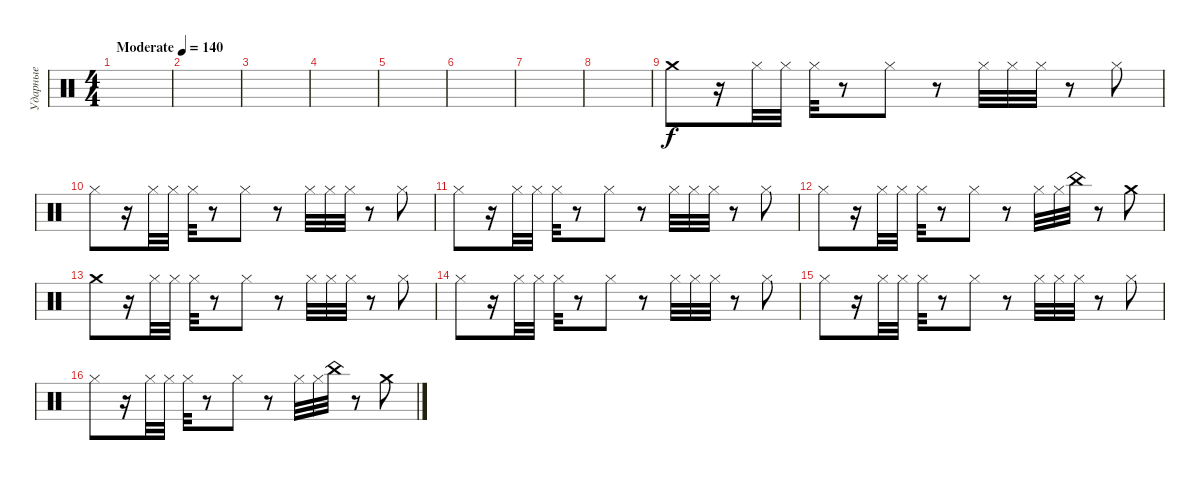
\track ("Ударные" "Ударные") {instrument percussion}
\staff {score}
\articulation defaults
\ts (4 4)
\tempo (140 "Moderate")
\clef neutral
\ks c
|
|
|
|
|
|
|
|
"Crash medium (hit)".8 r.16 "Hi-Hat (closed)".32 "Hi-Hat (closed)".32 "Hi-Hat (closed)".32 r.8 "Hi-Hat (closed)".8 r.8 "Hi-Hat (closed)".32 "Hi-Hat (closed)".32 "Hi-Hat (closed)".32 r.8 "Hi-Hat (closed)".8 |
"Hi-Hat (closed)".8 r.16 "Hi-Hat (closed)".32 "Hi-Hat (closed)".32 "Hi-Hat (closed)".32 r.8 "Hi-Hat (closed)".8 r.8 "Hi-Hat (closed)".32 "Hi-Hat (closed)".32 "Hi-Hat (closed)".32 r.8 "Hi-Hat (closed)".8 |
"Hi-Hat (closed)".8 r.16 "Hi-Hat (closed)".32 "Hi-Hat (closed)".32 "Hi-Hat (closed)".32 r.8 "Hi-Hat (closed)".8 r.8 "Hi-Hat (closed)".32 "Hi-Hat (closed)".32 "Hi-Hat (closed)".32 r.8 "Hi-Hat (closed)".8 |
"Hi-Hat (closed)".8 r.16 "Hi-Hat (closed)".32 "Hi-Hat (closed)".32 "Hi-Hat (closed)".32 r.8 "Hi-Hat (closed)".8 r.8 "Hi-Hat (closed)".32 "Hi-Hat (closed)".32 "China (hit)".32 r.8 "Crash medium (hit)".8 |
"Crash medium (hit)".8 r.16 "Hi-Hat (closed)".32 "Hi-Hat (closed)".32 "Hi-Hat (closed)".32 r.8 "Hi-Hat (closed)".8 r.8 "Hi-Hat (closed)".32 "Hi-Hat (closed)".32 "Hi-Hat (closed)".32 r.8 "Hi-Hat (closed)".8 |
"Hi-Hat (closed)".8 r.16 "Hi-Hat (closed)".32 "Hi-Hat (closed)".32 "Hi-Hat (closed)".32 r.8 "Hi-Hat (closed)".8 r.8 "Hi-Hat (closed)".32 "Hi-Hat (closed)".32 "Hi-Hat (closed)".32 r.8 "Hi-Hat (closed)".8 |
"Hi-Hat (closed)".8 r.16 "Hi-Hat (closed)".32 "Hi-Hat (closed)".32 "Hi-Hat (closed)".32 r.8 "Hi-Hat (closed)".8 r.8 "Hi-Hat (closed)".32 "Hi-Hat (closed)".32 "Hi-Hat (closed)".32 r.8 "Hi-Hat (closed)".8 |
"Hi-Hat (closed)".8 r.16 "Hi-Hat (closed)".32 "Hi-Hat (closed)".32 "Hi-Hat (closed)".32 r.8 "Hi-Hat (closed)".8 r.8 "Hi-Hat (closed)".32 "Hi-Hat (closed)".32 "China (hit)".32 r.8 "Crash medium (hit)".8
